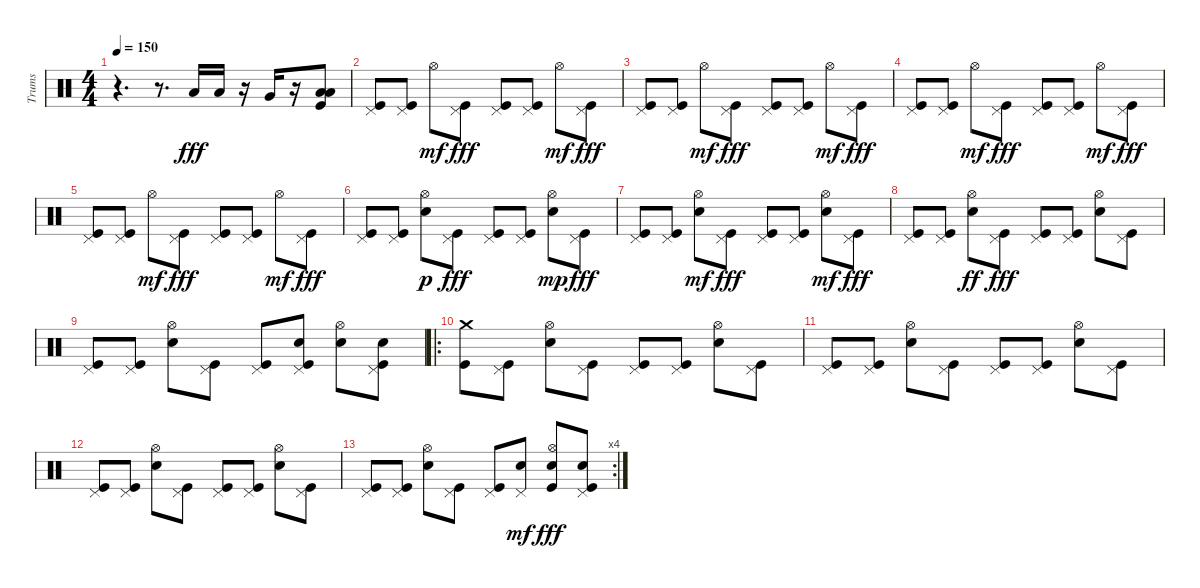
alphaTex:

\track ("Trums" "Trums") {instrument percussion}
\staff {score}
\articulation defaults
\ts (4 4)
\tempo 150
\clef neutral
\ks c
r.4{d dy mp} r.8{d} "Low Tom (hit)".16{dy fff} "Low Tom (hit)".16 r.16 "Very Low Tom (hit)".16 r.16 ("Low Floor Tom (hit)" "Low Floor Tom (hit)" "Kick (hit)").8 |
("Pedal Hi-Hat (hit)" "Kick (hit)").8 ("Pedal Hi-Hat (hit)" "Kick (hit)").8 "Hi-Hat (open)".8{dy mf} ("Pedal Hi-Hat (hit)" "Kick (hit)").8{dy fff} ("Pedal Hi-Hat (hit)" "Kick (hit)").8 ("Pedal Hi-Hat (hit)" "Kick (hit)").8 "Hi-Hat (open)".8{dy mf} ("Pedal Hi-Hat (hit)" "Kick (hit)").8{dy fff} |
("Pedal Hi-Hat (hit)" "Kick (hit)").8 ("Pedal Hi-Hat (hit)" "Kick (hit)").8 "Hi-Hat (open)".8{dy mf} ("Pedal Hi-Hat (hit)" "Kick (hit)").8{dy fff} ("Pedal Hi-Hat (hit)" "Kick (hit)").8 ("Pedal Hi-Hat (hit)" "Kick (hit)").8 "Hi-Hat (open)".8{dy mf} ("Pedal Hi-Hat (hit)" "Kick (hit)").8{dy fff} |
("Pedal Hi-Hat (hit)" "Kick (hit)").8 ("Pedal Hi-Hat (hit)" "Kick (hit)").8 "Hi-Hat (open)".8{dy mf} ("Pedal Hi-Hat (hit)" "Kick (hit)").8{dy fff} ("Pedal Hi-Hat (hit)" "Kick (hit)").8 ("Pedal Hi-Hat (hit)" "Kick (hit)").8 "Hi-Hat (open)".8{dy mf} ("Pedal Hi-Hat (hit)" "Kick (hit)").8{dy fff} |
("Pedal Hi-Hat (hit)" "Kick (hit)").8 ("Pedal Hi-Hat (hit)" "Kick (hit)").8 "Hi-Hat (open)".8{dy mf} ("Pedal Hi-Hat (hit)" "Kick (hit)").8{dy fff} ("Pedal Hi-Hat (hit)" "Kick (hit)").8 ("Pedal Hi-Hat (hit)" "Kick (hit)").8 "Hi-Hat (open)".8{dy mf} ("Pedal Hi-Hat (hit)" "Kick (hit)").8{dy fff} |
("Pedal Hi-Hat (hit)" "Kick (hit)").8 ("Pedal Hi-Hat (hit)" "Kick (hit)").8 ("Hi-Hat (open)" "Electric Snare (hit)").8{dy p} ("Pedal Hi-Hat (hit)" "Kick (hit)").8{dy fff} ("Pedal Hi-Hat (hit)" "Kick (hit)").8 ("Pedal Hi-Hat (hit)" "Kick (hit)").8 ("Hi-Hat (open)" "Electric Snare (hit)").8{dy mp} ("Pedal Hi-Hat (hit)" "Kick (hit)").8{dy fff} |
("Pedal Hi-Hat (hit)" "Kick (hit)").8 ("Pedal Hi-Hat (hit)" "Kick (hit)").8 ("Hi-Hat (open)" "Electric Snare (hit)").8{dy mf} ("Pedal Hi-Hat (hit)" "Kick (hit)").8{dy fff} ("Pedal Hi-Hat (hit)" "Kick (hit)").8 ("Pedal Hi-Hat (hit)" "Kick (hit)").8 ("Hi-Hat (open)" "Electric Snare (hit)").8{dy mf} ("Pedal Hi-Hat (hit)" "Kick (hit)").8{dy fff} |
("Pedal Hi-Hat (hit)" "Kick (hit)").8 ("Pedal Hi-Hat (hit)" "Kick (hit)").8 ("Hi-Hat (open)" "Electric Snare (hit)").8{dy ff} ("Pedal Hi-Hat (hit)" "Kick (hit)").8{dy fff} ("Pedal Hi-Hat (hit)" "Kick (hit)").8 ("Pedal Hi-Hat (hit)" "Kick (hit)").8 ("Hi-Hat (open)" "Electric Snare (hit)").8 ("Pedal Hi-Hat (hit)" "Kick (hit)").8 |
("Pedal Hi-Hat (hit)" "Kick (hit)").8 ("Pedal Hi-Hat (hit)" "Kick (hit)").8 ("Hi-Hat (open)" "Electric Snare (hit)").8 ("Pedal Hi-Hat (hit)" "Kick (hit)").8 ("Pedal Hi-Hat (hit)" "Kick (hit)").8 ("Pedal Hi-Hat (hit)" "Electric Snare (hit)" "Kick (hit)").8 ("Hi-Hat (open)" "Electric Snare (hit)").8 ("Pedal Hi-Hat (hit)" "Electric Snare (hit)" "Kick (hit)").8 |
\ro
("Crash medium (hit)" "Kick (hit)").8 ("Pedal Hi-Hat (hit)" "Kick (hit)").8 ("Hi-Hat (open)" "Electric Snare (hit)").8 ("Pedal Hi-Hat (hit)" "Kick (hit)").8 ("Pedal Hi-Hat (hit)" "Kick (hit)").8 ("Pedal Hi-Hat (hit)" "Kick (hit)").8 ("Hi-Hat (open)" "Electric Snare (hit)").8 ("Pedal Hi-Hat (hit)" "Kick (hit)").8 |
("Pedal Hi-Hat (hit)" "Kick (hit)").8 ("Pedal Hi-Hat (hit)" "Kick (hit)").8 ("Hi-Hat (open)" "Electric Snare (hit)").8 ("Pedal Hi-Hat (hit)" "Kick (hit)").8 ("Pedal Hi-Hat (hit)" "Kick (hit)").8 ("Pedal Hi-Hat (hit)" "Kick (hit)").8 ("Hi-Hat (open)" "Electric Snare (hit)").8 ("Pedal Hi-Hat (hit)" "Kick (hit)").8 |
("Pedal Hi-Hat (hit)" "Kick (hit)").8 ("Pedal Hi-Hat (hit)" "Kick (hit)").8 ("Hi-Hat (open)" "Electric Snare (hit)").8 ("Pedal Hi-Hat (hit)" "Kick (hit)").8 ("Pedal Hi-Hat (hit)" "Kick (hit)").8 ("Pedal Hi-Hat (hit)" "Kick (hit)").8 ("Hi-Hat (open)" "Electric Snare (hit)").8 ("Pedal Hi-Hat (hit)" "Kick (hit)").8 |
\rc 4
("Pedal Hi-Hat (hit)" "Kick (hit)").8 ("Pedal Hi-Hat (hit)" "Kick (hit)").8 ("Hi-Hat (open)" "Electric Snare (hit)").8 ("Pedal Hi-Hat (hit)" "Kick (hit)").8 ("Pedal Hi-Hat (hit)" "Kick (hit)").8 ("Pedal Hi-Hat (hit)" "Electric Snare (hit)").8{dy mf} ("Hi-Hat (open)" "Electric Snare (hit)" "Kick (hit)").8{dy fff} ("Pedal Hi-Hat (hit)" "Electric Snare (hit)" "Kick (hit)").8
